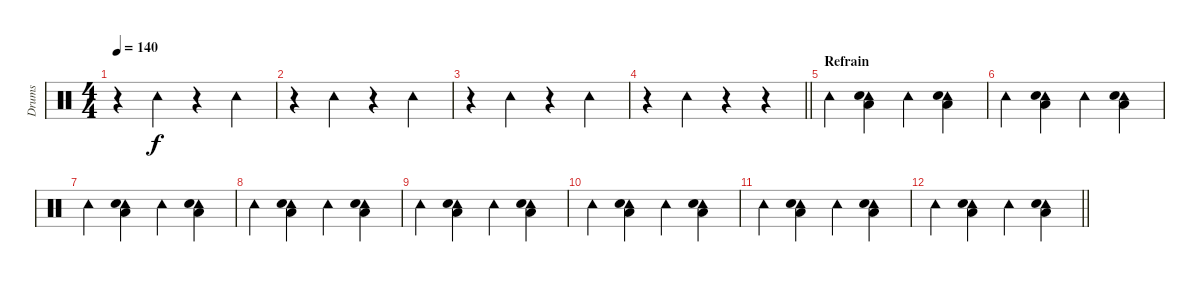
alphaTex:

\track ("Drums" "Drums") {instrument percussion}
\staff {score}
\articulation defaults
\ts (4 4)
\tempo 140
\clef neutral
\ks c
r.4{dy f} "Tambourine (hit)".4 r.4 "Tambourine (hit)".4 |
r.4 "Tambourine (hit)".4 r.4 "Tambourine (hit)".4 |
r.4 "Tambourine (hit)".4 r.4 "Tambourine (hit)".4 |
\barLineRight lightlight
r.4 "Tambourine (hit)".4 r.4 r.4 |
\section ("" "Refrain")
"Tambourine (hit)".4 ("Low Tom (hit)" "Tambourine (hit)" "Hand Clap (hit)").4 "Tambourine (hit)".4 ("Low Tom (hit)" "Tambourine (hit)" "Hand Clap (hit)").4 |
"Tambourine (hit)".4 ("Low Tom (hit)" "Tambourine (hit)" "Hand Clap (hit)").4 "Tambourine (hit)".4 ("Low Tom (hit)" "Tambourine (hit)" "Hand Clap (hit)").4 |
"Tambourine (hit)".4 ("Low Tom (hit)" "Tambourine (hit)" "Hand Clap (hit)").4 "Tambourine (hit)".4 ("Low Tom (hit)" "Tambourine (hit)" "Hand Clap (hit)").4 |
"Tambourine (hit)".4 ("Low Tom (hit)" "Tambourine (hit)" "Hand Clap (hit)").4 "Tambourine (hit)".4 ("Low Tom (hit)" "Tambourine (hit)" "Hand Clap (hit)").4 |
"Tambourine (hit)".4 ("Low Tom (hit)" "Tambourine (hit)" "Hand Clap (hit)").4 "Tambourine (hit)".4 ("Low Tom (hit)" "Tambourine (hit)" "Hand Clap (hit)").4 |
"Tambourine (hit)".4 ("Low Tom (hit)" "Tambourine (hit)" "Hand Clap (hit)").4 "Tambourine (hit)".4 ("Low Tom (hit)" "Tambourine (hit)" "Hand Clap (hit)").4 |
"Tambourine (hit)".4 ("Low Tom (hit)" "Tambourine (hit)" "Hand Clap (hit)").4 "Tambourine (hit)".4 ("Low Tom (hit)" "Tambourine (hit)" "Hand Clap (hit)").4 |
\barLineRight lightlight "Tambourine (hit)".4
("Low Tom (hit)" "Tambourine (hit)" "Hand Clap (hit)").4 "Tambourine (hit)".4 ("Low Tom (hit)" "Tambourine (hit)" "Hand Clap (hit)").4
